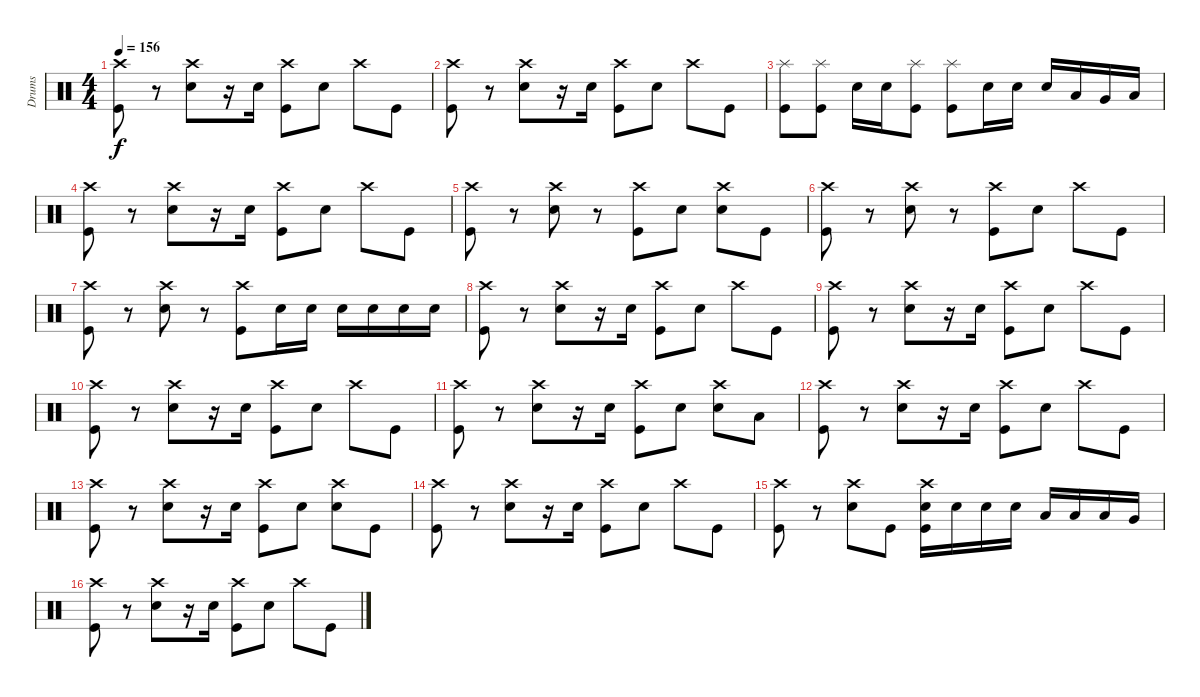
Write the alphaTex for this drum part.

\track ("Drums" "Drums") {instrument percussion}
\staff {score}
\articulation defaults
\ts (4 4)
\tempo 156
\clef neutral
\ks c
("Crash high (hit)" "Kick (hit)").8{dy f} r.8 ("Crash high (hit)" "Electric Snare (hit)").8 r.16 "Electric Snare (hit)".16 ("Crash high (hit)" "Kick (hit)").8 "Electric Snare (hit)".8 "Crash high (hit)".8 "Kick (hit)".8 |
("Crash high (hit)" "Kick (hit)").8 r.8 ("Crash high (hit)" "Electric Snare (hit)").8 r.16 "Electric Snare (hit)".16 ("Crash high (hit)" "Kick (hit)").8 "Electric Snare (hit)".8 "Crash high (hit)".8 "Kick (hit)".8 |
("Splash (hit)" "Kick (hit)").8 ("Splash (hit)" "Kick (hit)").8 "Electric Snare (hit)".16 "Electric Snare (hit)".16 ("Splash (hit)" "Kick (hit)").8 ("Splash (hit)" "Kick (hit)").8 "Electric Snare (hit)".16 "Electric Snare (hit)".16 "Electric Snare (hit)".16 "Low Tom (hit)".16 "Very Low Tom (hit)".16 "Low Floor Tom (hit)".16 |
("Crash high (hit)" "Kick (hit)").8 r.8 ("Crash high (hit)" "Electric Snare (hit)").8 r.16 "Electric Snare (hit)".16 ("Crash high (hit)" "Kick (hit)").8 "Electric Snare (hit)".8 "Crash high (hit)".8 "Kick (hit)".8 |
("Crash high (hit)" "Kick (hit)").8 r.8 ("Crash high (hit)" "Electric Snare (hit)").8 r.8 ("Crash high (hit)" "Kick (hit)").8 "Electric Snare (hit)".8 ("Crash high (hit)" "Electric Snare (hit)").8 "Kick (hit)".8 |
("Crash high (hit)" "Kick (hit)").8 r.8 ("Crash high (hit)" "Electric Snare (hit)").8 r.8 ("Crash high (hit)" "Kick (hit)").8 "Electric Snare (hit)".8 "Crash high (hit)".8 "Kick (hit)".8 |
("Crash high (hit)" "Kick (hit)").8 r.8 ("Crash high (hit)" "Electric Snare (hit)").8 r.8 ("Crash high (hit)" "Kick (hit)").8 "Electric Snare (hit)".16 "Electric Snare (hit)".16 "Electric Snare (hit)".16 "Electric Snare (hit)".16 "Electric Snare (hit)".16 "Electric Snare (hit)".16 |
("Crash high (hit)" "Kick (hit)").8 r.8 ("Crash high (hit)" "Electric Snare (hit)").8 r.16 "Electric Snare (hit)".16 ("Crash high (hit)" "Kick (hit)").8 "Electric Snare (hit)".8 "Crash high (hit)".8 "Kick (hit)".8 |
("Crash high (hit)" "Kick (hit)").8 r.8 ("Crash high (hit)" "Electric Snare (hit)").8 r.16 "Electric Snare (hit)".16 ("Crash high (hit)" "Kick (hit)").8 "Electric Snare (hit)".8 "Crash high (hit)".8 "Kick (hit)".8 |
("Crash high (hit)" "Kick (hit)").8 r.8 ("Crash high (hit)" "Electric Snare (hit)").8 r.16 "Electric Snare (hit)".16 ("Crash high (hit)" "Kick (hit)").8 "Electric Snare (hit)".8 "Crash high (hit)".8 "Kick (hit)".8 |
("Crash high (hit)" "Kick (hit)").8 r.8 ("Crash high (hit)" "Electric Snare (hit)").8 r.16 "Electric Snare (hit)".16 ("Crash high (hit)" "Kick (hit)").8 "Electric Snare (hit)".8 ("Crash high (hit)" "Electric Snare (hit)").8 "Low Floor Tom (hit)".8 |
("Crash high (hit)" "Kick (hit)").8 r.8 ("Crash high (hit)" "Electric Snare (hit)").8 r.16 "Electric Snare (hit)".16 ("Crash high (hit)" "Kick (hit)").8 "Electric Snare (hit)".8 "Crash high (hit)".8 "Kick (hit)".8 |
("Crash high (hit)" "Kick (hit)").8 r.8 ("Crash high (hit)" "Electric Snare (hit)").8 r.16 "Electric Snare (hit)".16 ("Crash high (hit)" "Kick (hit)").8 "Electric Snare (hit)".8 ("Crash high (hit)" "Electric Snare (hit)").8 "Kick (hit)".8 |
("Crash high (hit)" "Kick (hit)").8 r.8 ("Crash high (hit)" "Electric Snare (hit)").8 r.16 "Electric Snare (hit)".16 ("Crash high (hit)" "Kick (hit)").8 "Electric Snare (hit)".8 "Crash high (hit)".8 "Kick (hit)".8 |
("Crash high (hit)" "Kick (hit)").8 r.8 ("Crash high (hit)" "Electric Snare (hit)").8 "Kick (hit)".8 ("Crash high (hit)" "Electric Snare (hit)" "Kick (hit)").16 "Electric Snare (hit)".16 "Electric Snare (hit)".16 "Electric Snare (hit)".16 "Low Tom (hit)".16 "Low Tom (hit)".16 "Low Tom (hit)".16 "Very Low Tom (hit)".16 |
("Crash high (hit)" "Kick (hit)").8 r.8 ("Crash high (hit)" "Electric Snare (hit)").8 r.16 "Electric Snare (hit)".16 ("Crash high (hit)" "Kick (hit)").8 "Electric Snare (hit)".8 "Crash high (hit)".8 "Kick (hit)".8
